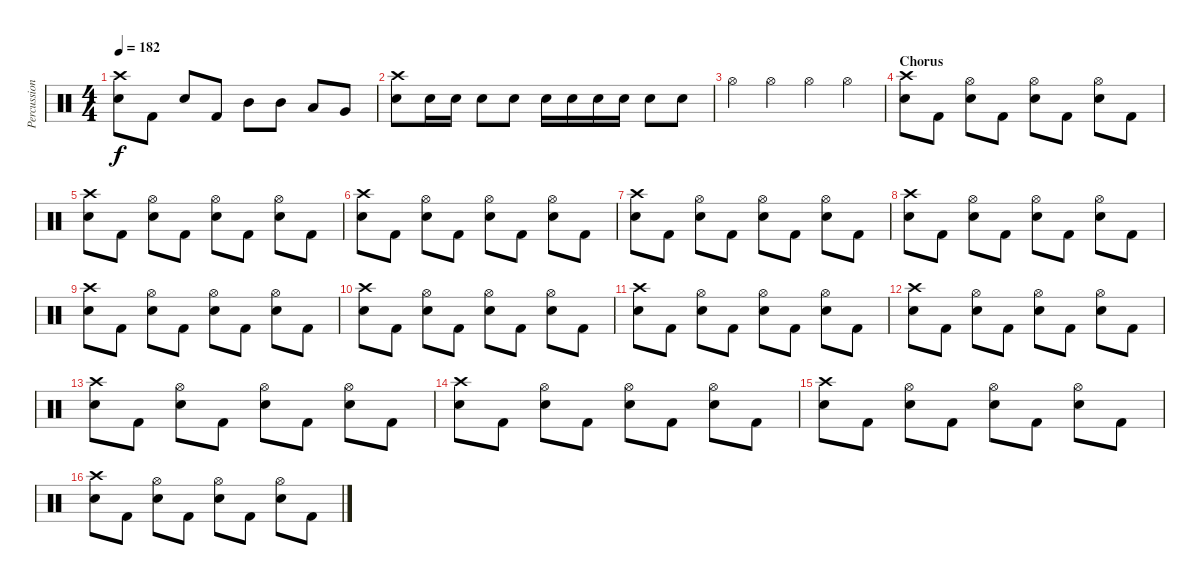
\track ("Percussion" "Percussion") {instrument percussion}
\staff {score}
\articulation defaults
\ts (4 4)
\tempo 182
\clef neutral
\ks c
("Crash high (hit)" "Snare (hit) 2").8{dy f} "Kick (hit) 2".8 "Snare (hit) 2".8 "Kick (hit) 2".8 "Mid Tom (hit)".8 "Mid Tom (hit)".8 "Low Tom (hit)".8 "Very Low Tom (hit)".8 |
("Crash high (hit)" "Snare (hit) 2").8 "Snare (hit) 2".16 "Snare (hit) 2".16 "Snare (hit) 2".8 "Snare (hit) 2".8 "Snare (hit) 2".16 "Snare (hit) 2".16 "Snare (hit) 2".16 "Snare (hit) 2".16 "Snare (hit) 2".8 "Snare (hit) 2".8 |
"Hi-Hat (open)".4 "Hi-Hat (open)".4 "Hi-Hat (open)".4 "Hi-Hat (open)".4 |
\section ("" "Chorus")
("Crash high (hit)" "Snare (hit) 2").8 "Kick (hit) 2".8 ("Hi-Hat (open)" "Snare (hit) 2").8 "Kick (hit) 2".8 ("Hi-Hat (open)" "Snare (hit) 2").8 "Kick (hit) 2".8 ("Hi-Hat (open)" "Snare (hit) 2").8 "Kick (hit) 2".8 |
("Crash high (hit)" "Snare (hit) 2").8 "Kick (hit) 2".8 ("Hi-Hat (open)" "Snare (hit) 2").8 "Kick (hit) 2".8 ("Hi-Hat (open)" "Snare (hit) 2").8 "Kick (hit) 2".8 ("Hi-Hat (open)" "Snare (hit) 2").8 "Kick (hit) 2".8 |
("Crash high (hit)" "Snare (hit) 2").8 "Kick (hit) 2".8 ("Hi-Hat (open)" "Snare (hit) 2").8 "Kick (hit) 2".8 ("Hi-Hat (open)" "Snare (hit) 2").8 "Kick (hit) 2".8 ("Hi-Hat (open)" "Snare (hit) 2").8 "Kick (hit) 2".8 |
("Crash high (hit)" "Snare (hit) 2").8 "Kick (hit) 2".8 ("Hi-Hat (open)" "Snare (hit) 2").8 "Kick (hit) 2".8 ("Hi-Hat (open)" "Snare (hit) 2").8 "Kick (hit) 2".8 ("Hi-Hat (open)" "Snare (hit) 2").8 "Kick (hit) 2".8 |
("Crash high (hit)" "Snare (hit) 2").8 "Kick (hit) 2".8 ("Hi-Hat (open)" "Snare (hit) 2").8 "Kick (hit) 2".8 ("Hi-Hat (open)" "Snare (hit) 2").8 "Kick (hit) 2".8 ("Hi-Hat (open)" "Snare (hit) 2").8 "Kick (hit) 2".8 |
("Crash high (hit)" "Snare (hit) 2").8 "Kick (hit) 2".8 ("Hi-Hat (open)" "Snare (hit) 2").8 "Kick (hit) 2".8 ("Hi-Hat (open)" "Snare (hit) 2").8 "Kick (hit) 2".8 ("Hi-Hat (open)" "Snare (hit) 2").8 "Kick (hit) 2".8 |
("Crash high (hit)" "Snare (hit) 2").8 "Kick (hit) 2".8 ("Hi-Hat (open)" "Snare (hit) 2").8 "Kick (hit) 2".8 ("Hi-Hat (open)" "Snare (hit) 2").8 "Kick (hit) 2".8 ("Hi-Hat (open)" "Snare (hit) 2").8 "Kick (hit) 2".8 |
("Crash high (hit)" "Snare (hit) 2").8 "Kick (hit) 2".8 ("Hi-Hat (open)" "Snare (hit) 2").8 "Kick (hit) 2".8 ("Hi-Hat (open)" "Snare (hit) 2").8 "Kick (hit) 2".8 ("Hi-Hat (open)" "Snare (hit) 2").8 "Kick (hit) 2".8 |
("Crash high (hit)" "Snare (hit) 2").8 "Kick (hit) 2".8 ("Hi-Hat (open)" "Snare (hit) 2").8 "Kick (hit) 2".8 ("Hi-Hat (open)" "Snare (hit) 2").8 "Kick (hit) 2".8 ("Hi-Hat (open)" "Snare (hit) 2").8 "Kick (hit) 2".8 |
("Crash high (hit)" "Snare (hit) 2").8 "Kick (hit) 2".8 ("Hi-Hat (open)" "Snare (hit) 2").8 "Kick (hit) 2".8 ("Hi-Hat (open)" "Snare (hit) 2").8 "Kick (hit) 2".8 ("Hi-Hat (open)" "Snare (hit) 2").8 "Kick (hit) 2".8 |
("Crash high (hit)" "Snare (hit) 2").8 "Kick (hit) 2".8 ("Hi-Hat (open)" "Snare (hit) 2").8 "Kick (hit) 2".8 ("Hi-Hat (open)" "Snare (hit) 2").8 "Kick (hit) 2".8 ("Hi-Hat (open)" "Snare (hit) 2").8 "Kick (hit) 2".8 |
("Crash high (hit)" "Snare (hit) 2").8 "Kick (hit) 2".8 ("Hi-Hat (open)" "Snare (hit) 2").8 "Kick (hit) 2".8 ("Hi-Hat (open)" "Snare (hit) 2").8 "Kick (hit) 2".8 ("Hi-Hat (open)" "Snare (hit) 2").8 "Kick (hit) 2".8 |
("Crash high (hit)" "Snare (hit) 2").8 "Kick (hit) 2".8 ("Hi-Hat (open)" "Snare (hit) 2").8 "Kick (hit) 2".8 ("Hi-Hat (open)" "Snare (hit) 2").8 "Kick (hit) 2".8 ("Hi-Hat (open)" "Snare (hit) 2").8 "Kick (hit) 2".8
